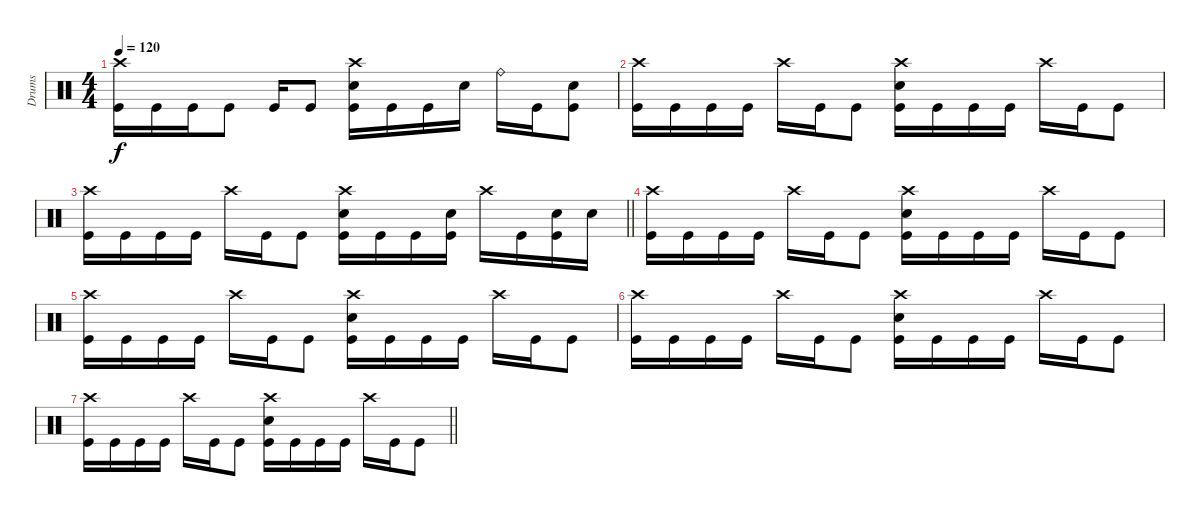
\track ("Drums" "Drums") {instrument percussion}
\staff
\articulation defaults
\ts (4 4)
\tempo 120
\clef neutral
\ks c
("Crash high (hit)" "Kick (hit)").16{dy f} "Kick (hit)".16 "Kick (hit)".16 "Kick (hit)".8 "Kick (hit)".16 "Kick (hit)".8 ("Crash high (hit)" "Electric Snare (hit)" "Kick (hit)").16 "Kick (hit)".16 "Kick (hit)".16 "Electric Snare (hit)".16 "Ride (bell)".16 "Kick (hit)".16 ("Electric Snare (hit)" "Kick (hit)").8 |
("Crash high (hit)" "Kick (hit)").16 "Kick (hit)".16 "Kick (hit)".16 "Kick (hit)".16 "Crash high (hit)".16 "Kick (hit)".16 "Kick (hit)".8 ("Crash high (hit)" "Electric Snare (hit)" "Kick (hit)").16 "Kick (hit)".16 "Kick (hit)".16 "Kick (hit)".16 "Crash high (hit)".16 "Kick (hit)".16 "Kick (hit)".8 |
\barLineRight lightlight
("Crash high (hit)" "Kick (hit)").16 "Kick (hit)".16 "Kick (hit)".16 "Kick (hit)".16 "Crash high (hit)".16 "Kick (hit)".16 "Kick (hit)".8 ("Crash high (hit)" "Electric Snare (hit)" "Kick (hit)").16 "Kick (hit)".16 "Kick (hit)".16 ("Electric Snare (hit)" "Kick (hit)").16 "Crash high (hit)".16 "Kick (hit)".16 ("Electric Snare (hit)" "Kick (hit)").16 "Electric Snare (hit)".16 |
("Crash high (hit)" "Kick (hit)").16 "Kick (hit)".16 "Kick (hit)".16 "Kick (hit)".16 "Crash high (hit)".16 "Kick (hit)".16 "Kick (hit)".8 ("Crash high (hit)" "Electric Snare (hit)" "Kick (hit)").16 "Kick (hit)".16 "Kick (hit)".16 "Kick (hit)".16 "Crash high (hit)".16 "Kick (hit)".16 "Kick (hit)".8 |
("Crash high (hit)" "Kick (hit)").16 "Kick (hit)".16 "Kick (hit)".16 "Kick (hit)".16 "Crash high (hit)".16 "Kick (hit)".16 "Kick (hit)".8 ("Crash high (hit)" "Electric Snare (hit)" "Kick (hit)").16 "Kick (hit)".16 "Kick (hit)".16 "Kick (hit)".16 "Crash high (hit)".16 "Kick (hit)".16 "Kick (hit)".8 |
("Crash high (hit)" "Kick (hit)").16 "Kick (hit)".16 "Kick (hit)".16 "Kick (hit)".16 "Crash high (hit)".16 "Kick (hit)".16 "Kick (hit)".8 ("Crash high (hit)" "Electric Snare (hit)" "Kick (hit)").16 "Kick (hit)".16 "Kick (hit)".16 "Kick (hit)".16 "Crash high (hit)".16 "Kick (hit)".16 "Kick (hit)".8 |
\barLineRight lightlight
("Crash high (hit)" "Kick (hit)").16 "Kick (hit)".16 "Kick (hit)".16 "Kick (hit)".16 "Crash high (hit)".16 "Kick (hit)".16 "Kick (hit)".8 ("Crash high (hit)" "Electric Snare (hit)" "Kick (hit)").16 "Kick (hit)".16 "Kick (hit)".16 "Kick (hit)".16 "Crash high (hit)".16 "Kick (hit)".16 "Kick (hit)".8
